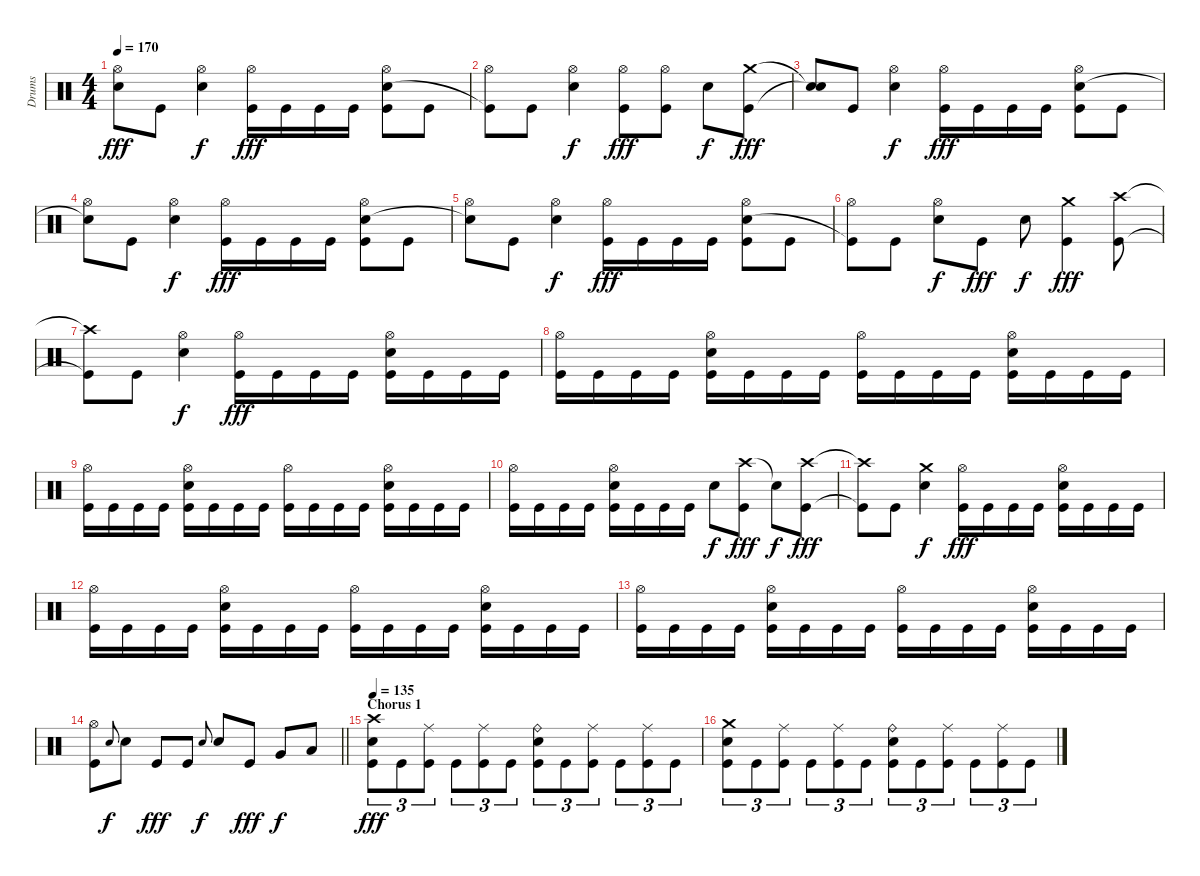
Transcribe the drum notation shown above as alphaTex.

\track ("Drums" "Drums") {instrument percussion}
\staff {score}
\articulation defaults
\ts (4 4)
\tempo 170
\clef neutral
\ks c
("Hi-Hat (open)" "Snare (hit)"{t}).8{dy fff} "Kick (hit)".8 ("Hi-Hat (open)" "Electric Snare (hit)").4{dy f} ("Hi-Hat (open)" "Kick (hit)").16{dy fff} "Kick (hit)".16 "Kick (hit)".16 "Kick (hit)".16 ("Hi-Hat (open)" "Electric Snare (hit)" "Kick (hit)").8 "Kick (hit)".8 |
("Hi-Hat (open)" "Kick (hit)"{t}).8 "Kick (hit)".8 ("Hi-Hat (open)" "Electric Snare (hit)").4{dy f} ("Hi-Hat (open)" "Kick (hit)").8{dy fff} ("Hi-Hat (open)" "Kick (hit)").8 "Electric Snare (hit)".8{dy f} ("Crash medium (hit)" "Kick (hit)").8{dy fff} |
("Snare (hit)"{t} "Snare (hit)"{t}).8 "Kick (hit)".8 ("Hi-Hat (open)" "Electric Snare (hit)").4{dy f} ("Hi-Hat (open)" "Kick (hit)").16{dy fff} "Kick (hit)".16 "Kick (hit)".16 "Kick (hit)".16 ("Hi-Hat (open)" "Electric Snare (hit)" "Kick (hit)").8 "Kick (hit)".8 |
("Hi-Hat (open)" "Snare (hit)"{t}).8 "Kick (hit)".8 ("Hi-Hat (open)" "Electric Snare (hit)").4{dy f} ("Hi-Hat (open)" "Kick (hit)").16{dy fff} "Kick (hit)".16 "Kick (hit)".16 "Kick (hit)".16 ("Hi-Hat (open)" "Electric Snare (hit)" "Kick (hit)").8 "Kick (hit)".8 |
("Hi-Hat (open)" "Snare (hit)"{t}).8 "Kick (hit)".8 ("Hi-Hat (open)" "Electric Snare (hit)").4{dy f} ("Hi-Hat (open)" "Kick (hit)").16{dy fff} "Kick (hit)".16 "Kick (hit)".16 "Kick (hit)".16 ("Hi-Hat (open)" "Electric Snare (hit)" "Kick (hit)").8 "Kick (hit)".8 |
("Hi-Hat (open)" "Kick (hit)"{t}).8 "Kick (hit)".8 ("Hi-Hat (open)" "Electric Snare (hit)").8{dy f} "Kick (hit)".8{dy fff} "Electric Snare (hit)".8{dy f} ("Crash medium (hit)" "Kick (hit)").4{dy fff} ("Crash high (hit)" "Kick (hit)").8 |
("Crash high (hit)"{t} "Kick (hit)"{t}).8 "Kick (hit)".8 ("Hi-Hat (open)" "Electric Snare (hit)").4{dy f} ("Hi-Hat (open)" "Kick (hit)").16{dy fff} "Kick (hit)".16 "Kick (hit)".16 "Kick (hit)".16 ("Hi-Hat (open)" "Electric Snare (hit)" "Kick (hit)").16 "Kick (hit)".16 "Kick (hit)".16 "Kick (hit)".16 |
("Hi-Hat (open)" "Kick (hit)").16 "Kick (hit)".16 "Kick (hit)".16 "Kick (hit)".16 ("Hi-Hat (open)" "Electric Snare (hit)" "Kick (hit)").16 "Kick (hit)".16 "Kick (hit)".16 "Kick (hit)".16 ("Hi-Hat (open)" "Kick (hit)").16 "Kick (hit)".16 "Kick (hit)".16 "Kick (hit)".16 ("Hi-Hat (open)" "Electric Snare (hit)" "Kick (hit)").16 "Kick (hit)".16 "Kick (hit)".16 "Kick (hit)".16 |
("Hi-Hat (open)" "Kick (hit)").16 "Kick (hit)".16 "Kick (hit)".16 "Kick (hit)".16 ("Hi-Hat (open)" "Electric Snare (hit)" "Kick (hit)").16 "Kick (hit)".16 "Kick (hit)".16 "Kick (hit)".16 ("Hi-Hat (open)" "Kick (hit)").16 "Kick (hit)".16 "Kick (hit)".16 "Kick (hit)".16 ("Hi-Hat (open)" "Electric Snare (hit)" "Kick (hit)").16 "Kick (hit)".16 "Kick (hit)".16 "Kick (hit)".16 |
("Hi-Hat (open)" "Kick (hit)").16 "Kick (hit)".16 "Kick (hit)".16 "Kick (hit)".16 ("Hi-Hat (open)" "Electric Snare (hit)" "Kick (hit)").16 "Kick (hit)".16 "Kick (hit)".16 "Kick (hit)".16 "Electric Snare (hit)".8{dy f} ("Crash high (hit)" "Kick (hit)").8{dy fff} "Snare (hit)"{t}.8{dy f volume 0} ("Crash high (hit)" "Kick (hit)").8{dy fff volume 15} |
("Crash high (hit)"{t} "Kick (hit)"{t}).8 "Kick (hit)".8 ("Crash medium (hit)" "Electric Snare (hit)").4{dy f} ("Hi-Hat (open)" "Kick (hit)").16{dy fff} "Kick (hit)".16 "Kick (hit)".16 "Kick (hit)".16 ("Hi-Hat (open)" "Electric Snare (hit)" "Kick (hit)").16 "Kick (hit)".16 "Kick (hit)".16 "Kick (hit)".16 |
("Hi-Hat (open)" "Kick (hit)").16 "Kick (hit)".16 "Kick (hit)".16 "Kick (hit)".16 ("Hi-Hat (open)" "Electric Snare (hit)" "Kick (hit)").16 "Kick (hit)".16 "Kick (hit)".16 "Kick (hit)".16 ("Hi-Hat (open)" "Kick (hit)").16 "Kick (hit)".16 "Kick (hit)".16 "Kick (hit)".16 ("Hi-Hat (open)" "Electric Snare (hit)" "Kick (hit)").16 "Kick (hit)".16 "Kick (hit)".16 "Kick (hit)".16 |
("Hi-Hat (open)" "Kick (hit)").16 "Kick (hit)".16 "Kick (hit)".16 "Kick (hit)".16 ("Hi-Hat (open)" "Electric Snare (hit)" "Kick (hit)").16 "Kick (hit)".16 "Kick (hit)".16 "Kick (hit)".16 ("Hi-Hat (open)" "Kick (hit)").16 "Kick (hit)".16 "Kick (hit)".16 "Kick (hit)".16 ("Hi-Hat (open)" "Electric Snare (hit)" "Kick (hit)").16 "Kick (hit)".16 "Kick (hit)".16 "Kick (hit)".16 |
\barLineRight lightlight
("Hi-Hat (open)" "Kick (hit)").8 "Electric Snare (hit)".8{gr onbeat dy f} "Electric Snare (hit)".8 "Kick (hit)".8{dy fff} "Kick (hit)".8 "Electric Snare (hit)".8{gr onbeat dy f} "Electric Snare (hit)".8 "Kick (hit)".8{dy fff} "Very Low Tom (hit)".8{dy f} "Low Floor Tom (hit)".8 |
\section ("" "Chorus 1")
\tempo 135
("Crash high (hit)" "Electric Snare (hit)" "Kick (hit)").8{tu (3 2) dy fff} "Kick (hit)".8{tu (3 2)} ("Ride (middle)" "Kick (hit)").8{tu (3 2)} "Kick (hit)".8{tu (3 2)} ("Ride (middle)" "Kick (hit)").8{tu (3 2)} "Kick (hit)".8{tu (3 2)} ("Ride (bell)" "Electric Snare (hit)" "Kick (hit)").8{tu (3 2)} "Kick (hit)".8{tu (3 2)} ("Ride (middle)" "Kick (hit)").8{tu (3 2)} "Kick (hit)".8{tu (3 2)} ("Ride (middle)" "Kick (hit)").8{tu (3 2)} "Kick (hit)".8{tu (3 2)} |
("Crash medium (hit)" "Electric Snare (hit)" "Kick (hit)").8{tu (3 2)} "Kick (hit)".8{tu (3 2)} ("Ride (middle)" "Kick (hit)").8{tu (3 2)} "Kick (hit)".8{tu (3 2)} ("Ride (middle)" "Kick (hit)").8{tu (3 2)} "Kick (hit)".8{tu (3 2)} ("Ride (bell)" "Electric Snare (hit)" "Kick (hit)").8{tu (3 2)} "Kick (hit)".8{tu (3 2)} ("Ride (middle)" "Kick (hit)").8{tu (3 2)} "Kick (hit)".8{tu (3 2)} ("Ride (middle)" "Kick (hit)").8{tu (3 2)} "Kick (hit)".8{tu (3 2)}
